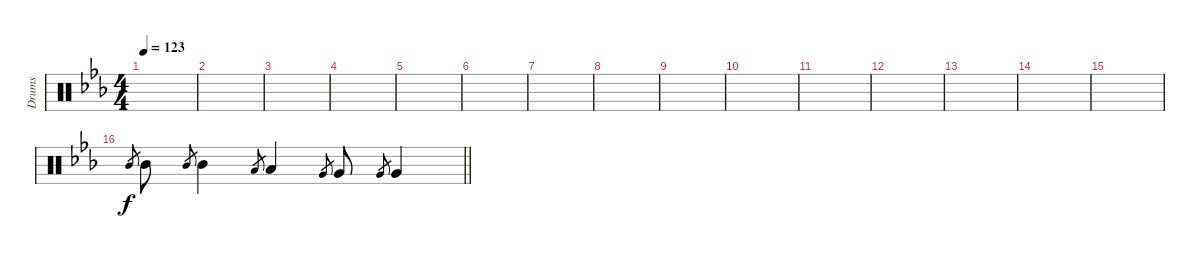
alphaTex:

\track ("Drums" "Drums") {instrument percussion}
\staff {score}
\articulation defaults
\ts (4 4)
\tempo 123
\clef neutral
\ks cminor
|
|
|
|
|
|
|
|
|
|
|
|
|
|
|
\barLineRight lightlight "Mid Tom (hit)".8{gr} "Mid Tom (hit)".8 "Mid Tom (hit)".8{gr} "Mid Tom (hit)".4 "Low Tom (hit)".8{gr} "Low Tom (hit)".4 "Very Low Tom (hit)".8{gr} "Very Low Tom (hit)".8 "Very Low Tom (hit)".8{gr} "Very Low Tom (hit)".4
